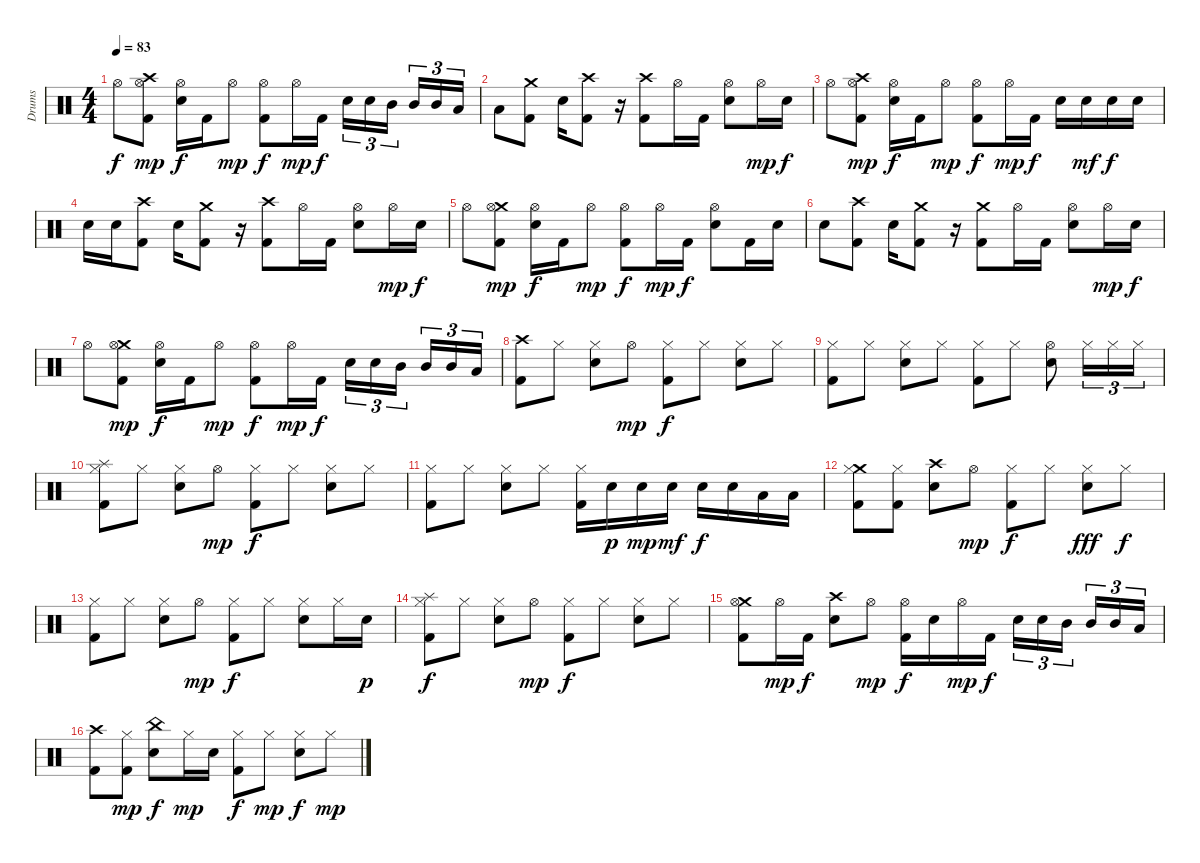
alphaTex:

\track ("Drums" "Drums") {instrument percussion}
\staff {score}
\articulation defaults
\ts (4 4)
\tempo 83
\clef neutral
\ks c "Hi-Hat (open)".8{dy f}
("Crash high (hit)" "Hi-Hat (open)" "Kick (hit) 2").8{dy mp} ("Hi-Hat (open)" "Electric Snare (hit)").16{dy f} "Kick (hit) 2".16 "Hi-Hat (open)".8{dy mp} ("Hi-Hat (open)" "Kick (hit) 2").8{dy f} "Hi-Hat (open)".16{dy mp} "Kick (hit) 2".16{dy f} "Electric Snare (hit)".16{tu (3 2)} "Electric Snare (hit)".16{tu (3 2)} "Mid Tom (hit)".16{tu (3 2)} "Mid Tom (hit)".16{tu (3 2)} "Mid Tom (hit)".16{tu (3 2)} "Low Tom (hit)".16{tu (3 2)} |
"Low Tom (hit)".8 ("Crash medium (hit)" "Kick (hit) 2").8 "Electric Snare (hit)".16 ("Crash high (hit)" "Kick (hit) 2").8 r.16 ("Crash high (hit)" "Kick (hit) 2").8 "Hi-Hat (open)".16 "Kick (hit) 2".16 ("Hi-Hat (open)" "Electric Snare (hit)").8 "Hi-Hat (open)".16{dy mp} "Electric Snare (hit)".16{dy f} |
"Hi-Hat (open)".8 ("Crash high (hit)" "Hi-Hat (open)" "Kick (hit) 2").8{dy mp} ("Hi-Hat (open)" "Electric Snare (hit)").16{dy f} "Kick (hit) 2".16 "Hi-Hat (open)".8{dy mp} ("Hi-Hat (open)" "Kick (hit) 2").8{dy f} "Hi-Hat (open)".16{dy mp} "Kick (hit) 2".16{dy f} "Electric Snare (hit)".16 "Electric Snare (hit)".16{dy mf} "Electric Snare (hit)".16{dy f} "Electric Snare (hit)".16 |
"Electric Snare (hit)".16 "Electric Snare (hit)".16 ("Crash high (hit)" "Kick (hit) 2").8 "Electric Snare (hit)".16 ("Crash medium (hit)" "Kick (hit) 2").8 r.16 ("Crash high (hit)" "Kick (hit) 2").8 "Hi-Hat (open)".16 "Kick (hit) 2".16 ("Hi-Hat (open)" "Electric Snare (hit)").8 "Hi-Hat (open)".16{dy mp} "Electric Snare (hit)".16{dy f} |
"Hi-Hat (open)".8 ("Crash medium (hit)" "Hi-Hat (open)" "Kick (hit) 2").8{dy mp} ("Hi-Hat (open)" "Electric Snare (hit)").16{dy f} "Kick (hit) 2".16 "Hi-Hat (open)".8{dy mp} ("Hi-Hat (open)" "Kick (hit) 2").8{dy f} "Hi-Hat (open)".16{dy mp} "Kick (hit) 2".16{dy f} ("Hi-Hat (open)" "Electric Snare (hit)").8 "Kick (hit) 2".16 "Electric Snare (hit)".16 |
"Electric Snare (hit)".8 ("Crash high (hit)" "Kick (hit) 2").8 "Electric Snare (hit)".16 ("Crash medium (hit)" "Kick (hit) 2").8 r.16 ("Crash medium (hit)" "Kick (hit) 2").8 "Hi-Hat (open)".16 "Kick (hit) 2".16 ("Hi-Hat (open)" "Electric Snare (hit)").8 "Hi-Hat (open)".16{dy mp} "Electric Snare (hit)".16{dy f} |
"Hi-Hat (open)".8 ("Crash medium (hit)" "Hi-Hat (open)" "Kick (hit) 2").8{dy mp} ("Hi-Hat (open)" "Electric Snare (hit)").16{dy f} "Kick (hit) 2".16 "Hi-Hat (open)".8{dy mp} ("Hi-Hat (open)" "Kick (hit) 2").8{dy f} "Hi-Hat (open)".16{dy mp} "Kick (hit) 2".16{dy f} "Electric Snare (hit)".16{tu (3 2)} "Electric Snare (hit)".16{tu (3 2)} "Mid Tom (hit)".16{tu (3 2)} "Mid Tom (hit)".16{tu (3 2)} "Mid Tom (hit)".16{tu (3 2)} "Low Tom (hit)".16{tu (3 2)} |
("Crash high (hit)" "Kick (hit) 2").8 "Hi-Hat (closed)".8 ("Hi-Hat (closed)" "Electric Snare (hit)").8 "Hi-Hat (open)".8{dy mp} ("Hi-Hat (closed)" "Kick (hit) 2").8{dy f} "Hi-Hat (closed)".8 ("Hi-Hat (closed)" "Electric Snare (hit)").8 "Hi-Hat (closed)".8 |
("Hi-Hat (closed)" "Kick (hit) 2").8 "Hi-Hat (closed)".8 ("Hi-Hat (closed)" "Electric Snare (hit)").8 "Hi-Hat (closed)".8 ("Hi-Hat (closed)" "Kick (hit) 2").8 "Hi-Hat (closed)".8 ("Hi-Hat (open)" "Electric Snare (hit)").8 "Hi-Hat (closed)".16{tu (3 2)} "Hi-Hat (closed)".16{tu (3 2)} "Hi-Hat (closed)".16{tu (3 2)} |
("Splash (hit)" "Hi-Hat (closed)" "Kick (hit) 2").8 "Hi-Hat (closed)".8 ("Hi-Hat (closed)" "Electric Snare (hit)").8 "Hi-Hat (open)".8{dy mp} ("Hi-Hat (closed)" "Kick (hit) 2").8{dy f} "Hi-Hat (closed)".8 ("Hi-Hat (closed)" "Electric Snare (hit)").8 "Hi-Hat (closed)".8 |
("Hi-Hat (closed)" "Kick (hit) 2").8 "Hi-Hat (closed)".8 ("Hi-Hat (closed)" "Electric Snare (hit)").8 "Hi-Hat (closed)".8 ("Hi-Hat (closed)" "Kick (hit) 2").16 "Electric Snare (hit)".16{dy p} "Electric Snare (hit)".16{dy mp} "Electric Snare (hit)".16{dy mf} "Electric Snare (hit)".16{dy f} "Electric Snare (hit)".16 "Low Tom (hit)".16 "Low Tom (hit)".16 |
("Crash medium (hit)" "Hi-Hat (closed)" "Kick (hit) 2").8 ("Hi-Hat (closed)" "Kick (hit) 2").8 ("Crash high (hit)" "Electric Snare (hit)").8 "Hi-Hat (open)".8{dy mp} ("Hi-Hat (closed)" "Kick (hit) 2").8{dy f} "Hi-Hat (closed)".8 ("Hi-Hat (closed)" "Electric Snare (hit)").8{dy fff} "Hi-Hat (closed)".8{dy f} |
("Hi-Hat (closed)" "Kick (hit) 2").8 "Hi-Hat (closed)".8 ("Hi-Hat (closed)" "Electric Snare (hit)").8 "Hi-Hat (open)".8{dy mp} ("Hi-Hat (closed)" "Kick (hit) 2").8{dy f} "Hi-Hat (closed)".8 ("Hi-Hat (closed)" "Electric Snare (hit)").8 "Hi-Hat (closed)".16 "Electric Snare (hit)".16{dy p} |
("Splash (hit)" "Hi-Hat (closed)" "Kick (hit) 2").8{dy f} "Hi-Hat (closed)".8 ("Hi-Hat (closed)" "Electric Snare (hit)").8 "Hi-Hat (open)".8{dy mp} ("Hi-Hat (closed)" "Kick (hit) 2").8{dy f} "Hi-Hat (closed)".8 ("Hi-Hat (closed)" "Electric Snare (hit)").8 "Hi-Hat (closed)".8 |
("Crash medium (hit)" "Hi-Hat (open)" "Kick (hit) 2").8 "Hi-Hat (open)".16{dy mp} "Kick (hit) 2".16{dy f} ("Crash high (hit)" "Electric Snare (hit)").8 "Hi-Hat (open)".8{dy mp} ("Hi-Hat (open)" "Kick (hit) 2").16{dy f} "Electric Snare (hit)".16 "Hi-Hat (open)".16{dy mp} "Kick (hit) 2".16{dy f} "Electric Snare (hit)".16{tu (3 2)} "Electric Snare (hit)".16{tu (3 2)} "Mid Tom (hit)".16{tu (3 2)} "Mid Tom (hit)".16{tu (3 2)} "Mid Tom (hit)".16{tu (3 2)} "Low Tom (hit)".16{tu (3 2)} |
("Crash high (hit)" "Kick (hit) 2").8 ("Hi-Hat (closed)" "Kick (hit) 2").8{dy mp} ("China (hit)" "Electric Snare (hit)").8{dy f} "Hi-Hat (closed)".16{dy mp} "Electric Snare (hit)".16 ("Hi-Hat (closed)" "Kick (hit) 2").8{dy f} "Hi-Hat (closed)".8{dy mp} ("Hi-Hat (closed)" "Electric Snare (hit)").8{dy f} "Hi-Hat (closed)".8{dy mp}
